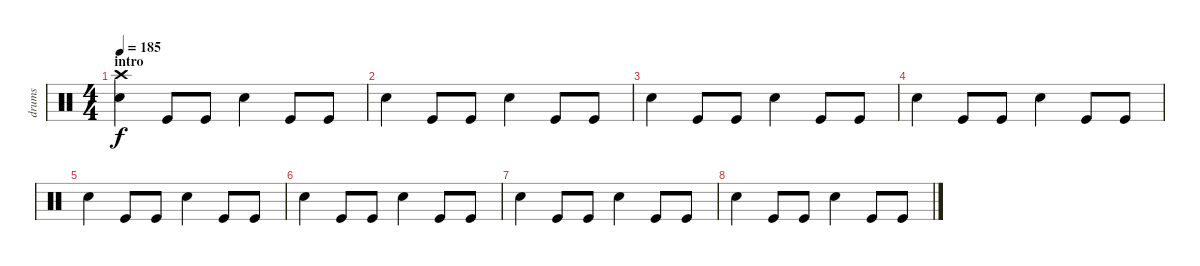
\track ("drums" "drums") {instrument percussion}
\staff {score}
\articulation defaults
\ts (4 4)
\section ("" "intro")
\tempo 185
\clef neutral
\ks c
("Crash high (hit)" "Electric Snare (hit)").4{dy f} "Kick (hit)".8 "Kick (hit)".8 "Electric Snare (hit)".4 "Kick (hit)".8 "Kick (hit)".8 |
"Electric Snare (hit)".4 "Kick (hit)".8 "Kick (hit)".8 "Electric Snare (hit)".4 "Kick (hit)".8 "Kick (hit)".8 |
"Electric Snare (hit)".4 "Kick (hit)".8 "Kick (hit)".8 "Electric Snare (hit)".4 "Kick (hit)".8 "Kick (hit)".8 |
"Electric Snare (hit)".4 "Kick (hit)".8 "Kick (hit)".8 "Electric Snare (hit)".4 "Kick (hit)".8 "Kick (hit)".8 |
"Electric Snare (hit)".4 "Kick (hit)".8 "Kick (hit)".8 "Electric Snare (hit)".4 "Kick (hit)".8 "Kick (hit)".8 |
"Electric Snare (hit)".4 "Kick (hit)".8 "Kick (hit)".8 "Electric Snare (hit)".4 "Kick (hit)".8 "Kick (hit)".8 |
"Electric Snare (hit)".4 "Kick (hit)".8 "Kick (hit)".8 "Electric Snare (hit)".4 "Kick (hit)".8 "Kick (hit)".8 |
"Electric Snare (hit)".4 "Kick (hit)".8 "Kick (hit)".8 "Electric Snare (hit)".4 "Kick (hit)".8 "Kick (hit)".8
